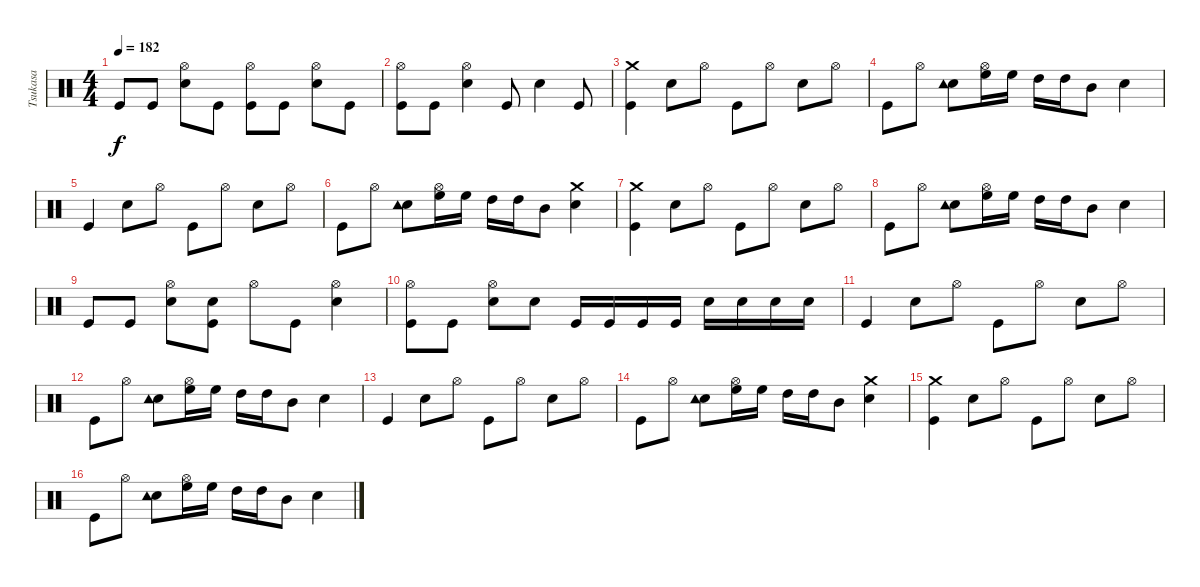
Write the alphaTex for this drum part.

\track ("Tsukasa" "Tsukasa") {instrument percussion}
\staff {score}
\articulation defaults
\ts (4 4)
\tempo 182
\clef neutral
\ks c "Kick (hit)".8{dy f} "Kick (hit)".8
("Electric Snare (hit)" "Hi-Hat (open)").8 "Kick (hit)".8 ("Kick (hit)" "Hi-Hat (open)").8 "Kick (hit)".8 ("Electric Snare (hit)" "Hi-Hat (open)").8 "Kick (hit)".8 |
("Kick (hit)" "Hi-Hat (open)").8 "Kick (hit)".8 ("Electric Snare (hit)" "Hi-Hat (open)").4 "Kick (hit)".8 "Electric Snare (hit)".4 "Kick (hit)".8 |
("Kick (hit)" "Crash medium (hit)").4 "Electric Snare (hit)".8 "Hi-Hat (open)".8 "Kick (hit)".8 "Hi-Hat (open)".8 "Electric Snare (hit)".8 "Hi-Hat (open)".8 |
"Kick (hit)".8 "Hi-Hat (open)".8 ("Electric Snare (hit)" "Tambourine (hit)").8 ("High Floor Tom (hit)" "Hi-Hat (open)").16 "High Floor Tom (hit)".16 "High Tom (hit)".16 "High Tom (hit)".16 "Mid Tom (hit)".8 "Electric Snare (hit)".4 |
"Kick (hit)".4 "Electric Snare (hit)".8 "Hi-Hat (open)".8 "Kick (hit)".8 "Hi-Hat (open)".8 "Electric Snare (hit)".8 "Hi-Hat (open)".8 |
"Kick (hit)".8 "Hi-Hat (open)".8 ("Electric Snare (hit)" "Tambourine (hit)").8 ("High Floor Tom (hit)" "Hi-Hat (open)").16 "High Floor Tom (hit)".16 "High Tom (hit)".16 "High Tom (hit)".16 "Mid Tom (hit)".8 ("Electric Snare (hit)" "Crash medium (hit)").4 |
("Kick (hit)" "Crash medium (hit)").4 "Electric Snare (hit)".8 "Hi-Hat (open)".8 "Kick (hit)".8 "Hi-Hat (open)".8 "Electric Snare (hit)".8 "Hi-Hat (open)".8 |
"Kick (hit)".8 "Hi-Hat (open)".8 ("Electric Snare (hit)" "Tambourine (hit)").8 ("High Floor Tom (hit)" "Hi-Hat (open)").16 "High Floor Tom (hit)".16 "High Tom (hit)".16 "High Tom (hit)".16 "Mid Tom (hit)".8 "Electric Snare (hit)".4 |
"Kick (hit)".8 "Kick (hit)".8 ("Electric Snare (hit)" "Hi-Hat (open)").8 ("Kick (hit)" "Electric Snare (hit)").8 "Hi-Hat (open)".8 "Kick (hit)".8 ("Electric Snare (hit)" "Hi-Hat (open)").4 |
("Kick (hit)" "Hi-Hat (open)").8 "Kick (hit)".8 ("Electric Snare (hit)" "Hi-Hat (open)").8 "Electric Snare (hit)".8 "Kick (hit)".16 "Kick (hit)".16 "Kick (hit)".16 "Kick (hit)".16 "Electric Snare (hit)".16 "Electric Snare (hit)".16 "Electric Snare (hit)".16 "Electric Snare (hit)".16 |
"Kick (hit)".4 "Electric Snare (hit)".8 "Hi-Hat (open)".8 "Kick (hit)".8 "Hi-Hat (open)".8 "Electric Snare (hit)".8 "Hi-Hat (open)".8 |
"Kick (hit)".8 "Hi-Hat (open)".8 ("Electric Snare (hit)" "Tambourine (hit)").8 ("High Floor Tom (hit)" "Hi-Hat (open)").16 "High Floor Tom (hit)".16 "High Tom (hit)".16 "High Tom (hit)".16 "Mid Tom (hit)".8 "Electric Snare (hit)".4 |
"Kick (hit)".4 "Electric Snare (hit)".8 "Hi-Hat (open)".8 "Kick (hit)".8 "Hi-Hat (open)".8 "Electric Snare (hit)".8 "Hi-Hat (open)".8 |
"Kick (hit)".8 "Hi-Hat (open)".8 ("Electric Snare (hit)" "Tambourine (hit)").8 ("High Floor Tom (hit)" "Hi-Hat (open)").16 "High Floor Tom (hit)".16 "High Tom (hit)".16 "High Tom (hit)".16 "Mid Tom (hit)".8 ("Electric Snare (hit)" "Crash medium (hit)").4 |
("Kick (hit)" "Crash medium (hit)").4 "Electric Snare (hit)".8 "Hi-Hat (open)".8 "Kick (hit)".8 "Hi-Hat (open)".8 "Electric Snare (hit)".8 "Hi-Hat (open)".8 |
"Kick (hit)".8 "Hi-Hat (open)".8 ("Electric Snare (hit)" "Tambourine (hit)").8 ("High Floor Tom (hit)" "Hi-Hat (open)").16 "High Floor Tom (hit)".16 "High Tom (hit)".16 "High Tom (hit)".16 "Mid Tom (hit)".8 "Electric Snare (hit)".4
